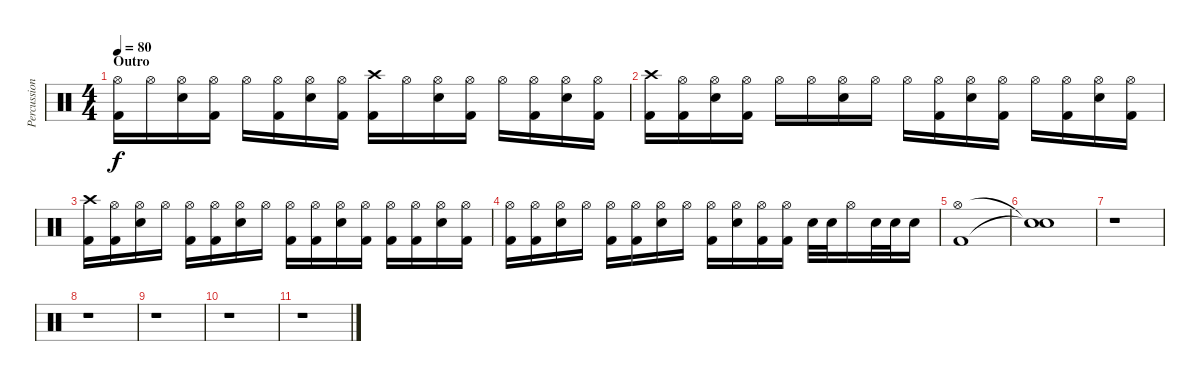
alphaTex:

\track ("Percussion" "Percussion") {instrument percussion}
\staff {score}
\articulation defaults
\ts (4 4)
\section ("" "Outro")
\tempo 80
\clef neutral
\ks c
("Hi-Hat (open)" "Kick (hit) 2").16{dy f} "Hi-Hat (open)".16 ("Hi-Hat (open)" "Electric Snare (hit)").16 ("Hi-Hat (open)" "Kick (hit) 2").16 "Hi-Hat (open)".16 ("Hi-Hat (open)" "Kick (hit) 2").16 ("Hi-Hat (open)" "Electric Snare (hit)").16 ("Hi-Hat (open)" "Kick (hit) 2").16 ("Crash high (hit)" "Kick (hit) 2").16 "Hi-Hat (open)".16 ("Hi-Hat (open)" "Electric Snare (hit)").16 ("Hi-Hat (open)" "Kick (hit) 2").16 "Hi-Hat (open)".16 ("Hi-Hat (open)" "Kick (hit) 2").16 ("Hi-Hat (open)" "Electric Snare (hit)").16 ("Hi-Hat (open)" "Kick (hit) 2").16 |
("Crash high (hit)" "Kick (hit) 2").16 ("Hi-Hat (open)" "Kick (hit) 2").16 ("Hi-Hat (open)" "Electric Snare (hit)").16 ("Hi-Hat (open)" "Kick (hit) 2").16 "Hi-Hat (open)".16 "Hi-Hat (open)".16 ("Hi-Hat (open)" "Electric Snare (hit)").16 "Hi-Hat (open)".16 "Hi-Hat (open)".16 ("Hi-Hat (open)" "Kick (hit) 2").16 ("Hi-Hat (open)" "Electric Snare (hit)").16 ("Hi-Hat (open)" "Kick (hit) 2").16 "Hi-Hat (open)".16 ("Hi-Hat (open)" "Kick (hit) 2").16 ("Hi-Hat (open)" "Electric Snare (hit)").16 ("Hi-Hat (open)" "Kick (hit) 2").16 |
("Crash high (hit)" "Kick (hit) 2").16 ("Hi-Hat (open)" "Kick (hit) 2").16 ("Hi-Hat (open)" "Electric Snare (hit)").16 "Hi-Hat (open)".16 ("Hi-Hat (open)" "Kick (hit) 2").16 ("Hi-Hat (open)" "Kick (hit) 2").16 ("Hi-Hat (open)" "Electric Snare (hit)").16 "Hi-Hat (open)".16 ("Hi-Hat (open)" "Kick (hit) 2").16 ("Hi-Hat (open)" "Kick (hit) 2").16 ("Hi-Hat (open)" "Electric Snare (hit)").16 ("Hi-Hat (open)" "Kick (hit) 2").16 ("Hi-Hat (open)" "Kick (hit) 2").16 ("Hi-Hat (open)" "Kick (hit) 2").16 ("Hi-Hat (open)" "Electric Snare (hit)").16 ("Hi-Hat (open)" "Kick (hit) 2").16 |
("Hi-Hat (open)" "Kick (hit) 2").16 ("Hi-Hat (open)" "Kick (hit) 2").16 ("Hi-Hat (open)" "Electric Snare (hit)").16 "Hi-Hat (open)".16 ("Hi-Hat (open)" "Kick (hit) 2").16 ("Hi-Hat (open)" "Kick (hit) 2").16 ("Hi-Hat (open)" "Electric Snare (hit)").16 "Hi-Hat (open)".16 ("Hi-Hat (open)" "Kick (hit) 2").16 ("Hi-Hat (open)" "Electric Snare (hit)").16 ("Hi-Hat (open)" "Kick (hit) 2").16 ("Hi-Hat (open)" "Kick (hit) 2").16 "Electric Snare (hit)".32 "Electric Snare (hit)".32 "Hi-Hat (open)".16 "Electric Snare (hit)".32 "Electric Snare (hit)".32 "Electric Snare (hit)".16 |
("Hi-Hat (open)" "Kick (hit) 2").1 |
("Snare (hit)"{t} "Snare (hit)"{t}).1 |
r.1 |
r.1 |
r.1 |
r.1 |
r.1
